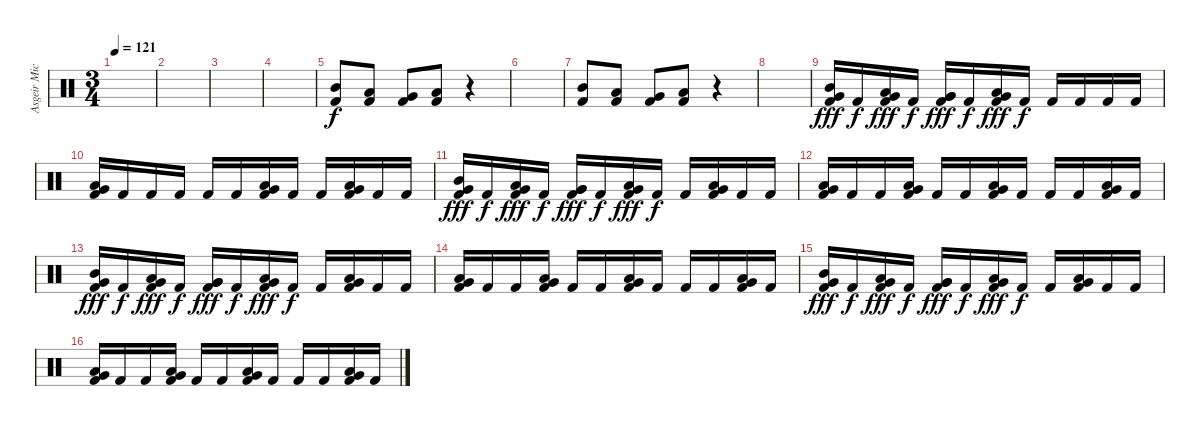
\track ("Asgeir Mickelson" "Asgeir Mic") {instrument percussion}
\staff {score}
\articulation defaults
\ts (3 4)
\tempo 121
\clef neutral
\ks c
|
|
|
|
("Mid Tom (hit)" "Kick (hit) 2").8 ("Low Tom (hit)" "Kick (hit) 2").8 ("Very Low Tom (hit)" "Kick (hit) 2").8 ("Low Floor Tom (hit)" "Kick (hit) 2").8 r.4 |
|
("Mid Tom (hit)" "Kick (hit) 2").8 ("Low Tom (hit)" "Kick (hit) 2").8 ("Very Low Tom (hit)" "Kick (hit) 2").8 ("Low Floor Tom (hit)" "Kick (hit) 2").8 r.4 |
|
("Mid Tom (hit)" "Very Low Tom (hit)" "Kick (hit) 2").16{dy fff} "Kick (hit) 2".16{dy f} ("Low Tom (hit)" "Very Low Tom (hit)" "Kick (hit) 2").16{dy fff} "Kick (hit) 2".16{dy f} ("Very Low Tom (hit)" "Very Low Tom (hit)" "Kick (hit) 2").16{dy fff} "Kick (hit) 2".16{dy f} ("Low Floor Tom (hit)" "Very Low Tom (hit)" "Kick (hit) 2").16{dy fff} "Kick (hit) 2".16{dy f} "Kick (hit) 2".16 "Kick (hit) 2".16 "Kick (hit) 2".16 "Kick (hit) 2".16 |
("Low Tom (hit)" "Very Low Tom (hit)" "Kick (hit) 2").16 "Kick (hit) 2".16 "Kick (hit) 2".16 "Kick (hit) 2".16 "Kick (hit) 2".16 "Kick (hit) 2".16 ("Low Tom (hit)" "Very Low Tom (hit)" "Kick (hit) 2").16 "Kick (hit) 2".16 "Kick (hit) 2".16 ("Low Floor Tom (hit)" "Very Low Tom (hit)" "Kick (hit) 2").16 "Kick (hit) 2".16 "Kick (hit) 2".16 |
("Mid Tom (hit)" "Very Low Tom (hit)" "Kick (hit) 2").16{dy fff} "Kick (hit) 2".16{dy f} ("Low Tom (hit)" "Very Low Tom (hit)" "Kick (hit) 2").16{dy fff} "Kick (hit) 2".16{dy f} ("Very Low Tom (hit)" "Very Low Tom (hit)" "Kick (hit) 2").16{dy fff} "Kick (hit) 2".16{dy f} ("Low Floor Tom (hit)" "Very Low Tom (hit)" "Kick (hit) 2").16{dy fff} "Kick (hit) 2".16{dy f} "Kick (hit) 2".16 ("Low Floor Tom (hit)" "Very Low Tom (hit)" "Kick (hit) 2").16 "Kick (hit) 2".16 "Kick (hit) 2".16 |
("Low Tom (hit)" "Very Low Tom (hit)" "Kick (hit) 2").16 "Kick (hit) 2".16 "Kick (hit) 2".16 ("Low Tom (hit)" "Very Low Tom (hit)" "Kick (hit) 2").16 "Kick (hit) 2".16 "Kick (hit) 2".16 ("Low Tom (hit)" "Very Low Tom (hit)" "Kick (hit) 2").16 "Kick (hit) 2".16 "Kick (hit) 2".16 "Kick (hit) 2".16 ("Low Floor Tom (hit)" "Very Low Tom (hit)" "Kick (hit) 2").16 "Kick (hit) 2".16 |
("Mid Tom (hit)" "Very Low Tom (hit)" "Kick (hit) 2").16{dy fff} "Kick (hit) 2".16{dy f} ("Low Tom (hit)" "Very Low Tom (hit)" "Kick (hit) 2").16{dy fff} "Kick (hit) 2".16{dy f} ("Very Low Tom (hit)" "Very Low Tom (hit)" "Kick (hit) 2").16{dy fff} "Kick (hit) 2".16{dy f} ("Low Floor Tom (hit)" "Very Low Tom (hit)" "Kick (hit) 2").16{dy fff} "Kick (hit) 2".16{dy f} "Kick (hit) 2".16 ("Low Floor Tom (hit)" "Very Low Tom (hit)" "Kick (hit) 2").16 "Kick (hit) 2".16 "Kick (hit) 2".16 |
("Low Tom (hit)" "Very Low Tom (hit)" "Kick (hit) 2").16 "Kick (hit) 2".16 "Kick (hit) 2".16 ("Low Tom (hit)" "Very Low Tom (hit)" "Kick (hit) 2").16 "Kick (hit) 2".16 "Kick (hit) 2".16 ("Low Tom (hit)" "Very Low Tom (hit)" "Kick (hit) 2").16 "Kick (hit) 2".16 "Kick (hit) 2".16 "Kick (hit) 2".16 ("Low Floor Tom (hit)" "Very Low Tom (hit)" "Kick (hit) 2").16 "Kick (hit) 2".16 |
("Mid Tom (hit)" "Very Low Tom (hit)" "Kick (hit) 2").16{dy fff} "Kick (hit) 2".16{dy f} ("Low Tom (hit)" "Very Low Tom (hit)" "Kick (hit) 2").16{dy fff} "Kick (hit) 2".16{dy f} ("Very Low Tom (hit)" "Very Low Tom (hit)" "Kick (hit) 2").16{dy fff} "Kick (hit) 2".16{dy f} ("Low Floor Tom (hit)" "Very Low Tom (hit)" "Kick (hit) 2").16{dy fff} "Kick (hit) 2".16{dy f} "Kick (hit) 2".16 ("Low Floor Tom (hit)" "Very Low Tom (hit)" "Kick (hit) 2").16 "Kick (hit) 2".16 "Kick (hit) 2".16 |
("Low Tom (hit)" "Very Low Tom (hit)" "Kick (hit) 2").16 "Kick (hit) 2".16 "Kick (hit) 2".16 ("Low Tom (hit)" "Very Low Tom (hit)" "Kick (hit) 2").16 "Kick (hit) 2".16 "Kick (hit) 2".16 ("Low Tom (hit)" "Very Low Tom (hit)" "Kick (hit) 2").16 "Kick (hit) 2".16 "Kick (hit) 2".16 "Kick (hit) 2".16 ("Low Floor Tom (hit)" "Very Low Tom (hit)" "Kick (hit) 2").16 "Kick (hit) 2".16
